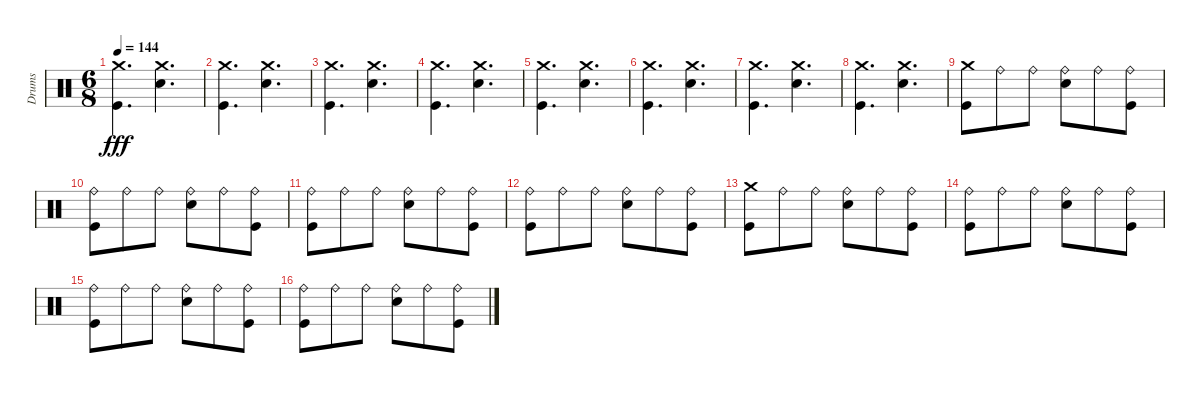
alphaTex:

\track ("Drums" "Drums") {instrument percussion}
\staff {score}
\articulation defaults
\ts (6 8)
\tempo 144
\clef neutral
\ks c
("Crash medium (hit)" "Kick (hit)").4{d dy fff} ("Crash medium (hit)" "Snare (hit) 2").4{d} |
("Crash medium (hit)" "Kick (hit)").4{d} ("Crash medium (hit)" "Snare (hit) 2").4{d} |
("Crash medium (hit)" "Kick (hit)").4{d} ("Crash medium (hit)" "Snare (hit) 2").4{d} |
("Crash medium (hit)" "Kick (hit)").4{d} ("Crash medium (hit)" "Snare (hit) 2").4{d} |
("Crash medium (hit)" "Kick (hit)").4{d} ("Crash medium (hit)" "Snare (hit) 2").4{d} |
("Crash medium (hit)" "Kick (hit)").4{d} ("Crash medium (hit)" "Snare (hit) 2").4{d} |
("Crash medium (hit)" "Kick (hit)").4{d} ("Crash medium (hit)" "Snare (hit) 2").4{d} |
("Crash medium (hit)" "Kick (hit)").4{d} ("Crash medium (hit)" "Snare (hit) 2").4{d} |
("Crash medium (hit)" "Kick (hit)").8 "Ride (bell)".8 "Ride (bell)".8 ("Ride (bell)" "Snare (hit) 2").8 "Ride (bell)".8 ("Ride (bell)" "Kick (hit)").8 |
("Ride (bell)" "Kick (hit)").8 "Ride (bell)".8 "Ride (bell)".8 ("Ride (bell)" "Snare (hit) 2").8 "Ride (bell)".8 ("Ride (bell)" "Kick (hit)").8 |
("Ride (bell)" "Kick (hit)").8 "Ride (bell)".8 "Ride (bell)".8 ("Ride (bell)" "Snare (hit) 2").8 "Ride (bell)".8 ("Ride (bell)" "Kick (hit)").8 |
("Ride (bell)" "Kick (hit)").8 "Ride (bell)".8 "Ride (bell)".8 ("Ride (bell)" "Snare (hit) 2").8 "Ride (bell)".8 ("Ride (bell)" "Kick (hit)").8 |
("Crash medium (hit)" "Kick (hit)").8 "Ride (bell)".8 "Ride (bell)".8 ("Ride (bell)" "Snare (hit) 2").8 "Ride (bell)".8 ("Ride (bell)" "Kick (hit)").8 |
("Ride (bell)" "Kick (hit)").8 "Ride (bell)".8 "Ride (bell)".8 ("Ride (bell)" "Snare (hit) 2").8 "Ride (bell)".8 ("Ride (bell)" "Kick (hit)").8 |
("Ride (bell)" "Kick (hit)").8 "Ride (bell)".8 "Ride (bell)".8 ("Ride (bell)" "Snare (hit) 2").8 "Ride (bell)".8 ("Ride (bell)" "Kick (hit)").8 |
("Ride (bell)" "Kick (hit)").8 "Ride (bell)".8 "Ride (bell)".8 ("Ride (bell)" "Snare (hit) 2").8 "Ride (bell)".8 ("Ride (bell)" "Kick (hit)").8
